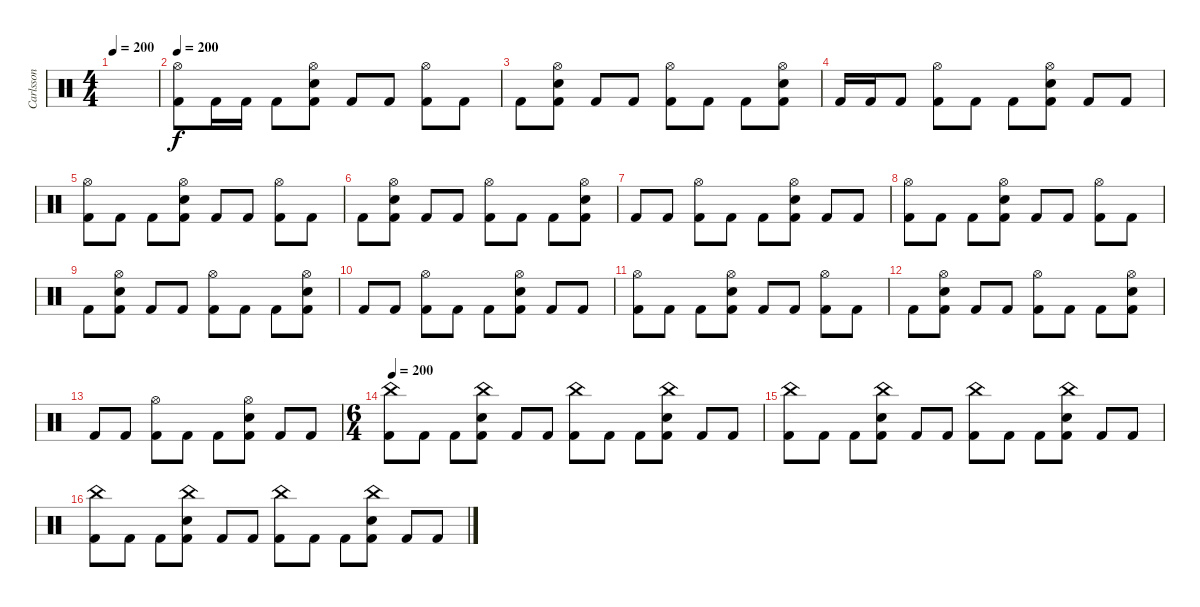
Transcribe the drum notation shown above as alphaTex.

\track ("Carlsson" "Carlsson") {instrument percussion}
\staff {score}
\articulation defaults
\ts (4 4)
\tempo 200
\tempo 160
\tempo 200
\clef neutral
\ks c
|
\tempo 200
("Hi-Hat (open)" "Kick (hit) 2").8 "Kick (hit) 2".16 "Kick (hit) 2".16 "Kick (hit) 2".8 ("Hi-Hat (open)" "Snare (hit) 2" "Kick (hit) 2").8 "Kick (hit) 2".8 "Kick (hit) 2".8 ("Hi-Hat (open)" "Kick (hit) 2").8 "Kick (hit) 2".8 |
"Kick (hit) 2".8 ("Hi-Hat (open)" "Snare (hit) 2" "Kick (hit) 2").8 "Kick (hit) 2".8 "Kick (hit) 2".8 ("Hi-Hat (open)" "Kick (hit) 2").8 "Kick (hit) 2".8 "Kick (hit) 2".8 ("Hi-Hat (open)" "Snare (hit) 2" "Kick (hit) 2").8 |
"Kick (hit) 2".16 "Kick (hit) 2".16 "Kick (hit) 2".8 ("Hi-Hat (open)" "Kick (hit) 2").8 "Kick (hit) 2".8 "Kick (hit) 2".8 ("Hi-Hat (open)" "Snare (hit) 2" "Kick (hit) 2").8 "Kick (hit) 2".8 "Kick (hit) 2".8 |
("Hi-Hat (open)" "Kick (hit) 2").8 "Kick (hit) 2".8 "Kick (hit) 2".8 ("Hi-Hat (open)" "Snare (hit) 2" "Kick (hit) 2").8 "Kick (hit) 2".8 "Kick (hit) 2".8 ("Hi-Hat (open)" "Kick (hit) 2").8 "Kick (hit) 2".8 |
"Kick (hit) 2".8 ("Hi-Hat (open)" "Snare (hit) 2" "Kick (hit) 2").8 "Kick (hit) 2".8 "Kick (hit) 2".8 ("Hi-Hat (open)" "Kick (hit) 2").8 "Kick (hit) 2".8 "Kick (hit) 2".8 ("Hi-Hat (open)" "Snare (hit) 2" "Kick (hit) 2").8 |
"Kick (hit) 2".8 "Kick (hit) 2".8 ("Hi-Hat (open)" "Kick (hit) 2").8 "Kick (hit) 2".8 "Kick (hit) 2".8 ("Hi-Hat (open)" "Snare (hit) 2" "Kick (hit) 2").8 "Kick (hit) 2".8 "Kick (hit) 2".8 |
("Hi-Hat (open)" "Kick (hit) 2").8 "Kick (hit) 2".8 "Kick (hit) 2".8 ("Hi-Hat (open)" "Snare (hit) 2" "Kick (hit) 2").8 "Kick (hit) 2".8 "Kick (hit) 2".8 ("Hi-Hat (open)" "Kick (hit) 2").8 "Kick (hit) 2".8 |
"Kick (hit) 2".8 ("Hi-Hat (open)" "Snare (hit) 2" "Kick (hit) 2").8 "Kick (hit) 2".8 "Kick (hit) 2".8 ("Hi-Hat (open)" "Kick (hit) 2").8 "Kick (hit) 2".8 "Kick (hit) 2".8 ("Hi-Hat (open)" "Snare (hit) 2" "Kick (hit) 2").8 |
"Kick (hit) 2".8 "Kick (hit) 2".8 ("Hi-Hat (open)" "Kick (hit) 2").8 "Kick (hit) 2".8 "Kick (hit) 2".8 ("Hi-Hat (open)" "Snare (hit) 2" "Kick (hit) 2").8 "Kick (hit) 2".8 "Kick (hit) 2".8 |
("Hi-Hat (open)" "Kick (hit) 2").8 "Kick (hit) 2".8 "Kick (hit) 2".8 ("Hi-Hat (open)" "Snare (hit) 2" "Kick (hit) 2").8 "Kick (hit) 2".8 "Kick (hit) 2".8 ("Hi-Hat (open)" "Kick (hit) 2").8 "Kick (hit) 2".8 |
"Kick (hit) 2".8 ("Hi-Hat (open)" "Snare (hit) 2" "Kick (hit) 2").8 "Kick (hit) 2".8 "Kick (hit) 2".8 ("Hi-Hat (open)" "Kick (hit) 2").8 "Kick (hit) 2".8 "Kick (hit) 2".8 ("Hi-Hat (open)" "Snare (hit) 2" "Kick (hit) 2").8 |
"Kick (hit) 2".8 "Kick (hit) 2".8 ("Hi-Hat (open)" "Kick (hit) 2").8 "Kick (hit) 2".8 "Kick (hit) 2".8 ("Hi-Hat (open)" "Snare (hit) 2" "Kick (hit) 2").8 "Kick (hit) 2".8 "Kick (hit) 2".8 |
\ts (6 4)
\tempo 200
("China (hit)" "Kick (hit) 2").8 "Kick (hit) 2".8 "Kick (hit) 2".8 ("China (hit)" "Snare (hit) 2" "Kick (hit) 2").8 "Kick (hit) 2".8 "Kick (hit) 2".8 ("China (hit)" "Kick (hit) 2").8 "Kick (hit) 2".8 "Kick (hit) 2".8 ("China (hit)" "Snare (hit) 2" "Kick (hit) 2").8 "Kick (hit) 2".8 "Kick (hit) 2".8 |
("China (hit)" "Kick (hit) 2").8 "Kick (hit) 2".8 "Kick (hit) 2".8 ("China (hit)" "Snare (hit) 2" "Kick (hit) 2").8 "Kick (hit) 2".8 "Kick (hit) 2".8 ("China (hit)" "Kick (hit) 2").8 "Kick (hit) 2".8 "Kick (hit) 2".8 ("China (hit)" "Snare (hit) 2" "Kick (hit) 2").8 "Kick (hit) 2".8 "Kick (hit) 2".8 |
("China (hit)" "Kick (hit) 2").8 "Kick (hit) 2".8 "Kick (hit) 2".8 ("China (hit)" "Snare (hit) 2" "Kick (hit) 2").8 "Kick (hit) 2".8 "Kick (hit) 2".8 ("China (hit)" "Kick (hit) 2").8 "Kick (hit) 2".8 "Kick (hit) 2".8 ("China (hit)" "Snare (hit) 2" "Kick (hit) 2").8 "Kick (hit) 2".8 "Kick (hit) 2".8
